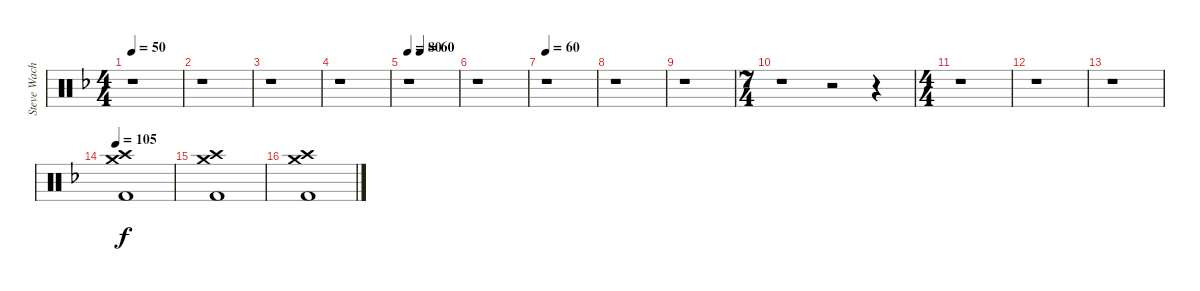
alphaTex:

\track ("Steve Wacholz" "Steve Wach") {instrument percussion}
\staff {score}
\articulation defaults
\ts (4 4)
\tempo 50
\clef neutral
\ks f
r.1{dy f} |
r.1 |
r.1 |
r.1 |
\tempo 80
\tempo (60 0.25)
r.1 |
r.1 |
\tempo 60
r.1 |
r.1 |
r.1 |
\ts (7 4)
r.1 r.2 r.4 |
\ts (4 4)
r.1 |
r.1 |
r.1 |
\tempo 105
("Crash medium (hit)" "Crash high (hit)" "Kick (hit) 2").1 |
("Crash medium (hit)" "Crash high (hit)" "Kick (hit) 2").1 |
("Crash medium (hit)" "Crash high (hit)" "Kick (hit) 2").1
